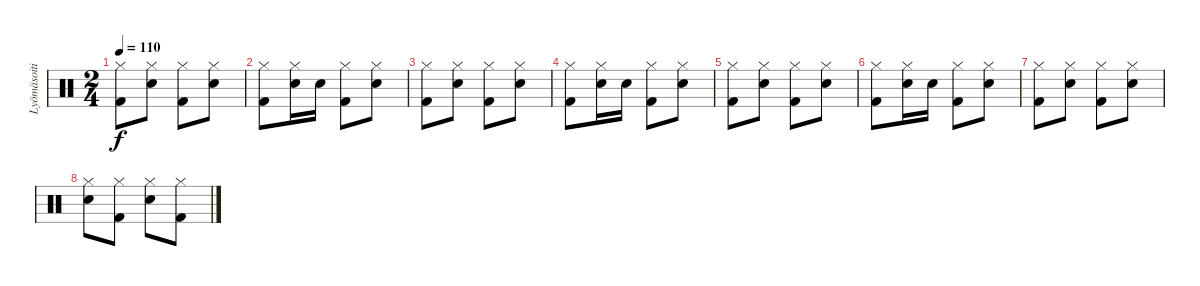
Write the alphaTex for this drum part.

\track ("Lyömäsoitin" "Lyömäsoiti") {instrument percussion}
\staff {score}
\articulation defaults
\ts (2 4)
\tempo 110
\clef neutral
\ks c
("Hi-Hat (closed)" "Kick (hit) 2").8{dy f} ("Hi-Hat (closed)" "Electric Snare (hit)").8 ("Hi-Hat (closed)" "Kick (hit) 2").8 ("Hi-Hat (closed)" "Electric Snare (hit)").8 |
("Hi-Hat (closed)" "Kick (hit) 2").8 ("Hi-Hat (closed)" "Electric Snare (hit)").16 "Electric Snare (hit)".16 ("Hi-Hat (closed)" "Kick (hit) 2").8 ("Hi-Hat (closed)" "Electric Snare (hit)").8 |
("Hi-Hat (closed)" "Kick (hit) 2").8 ("Hi-Hat (closed)" "Electric Snare (hit)").8 ("Hi-Hat (closed)" "Kick (hit) 2").8 ("Hi-Hat (closed)" "Electric Snare (hit)").8 |
("Hi-Hat (closed)" "Kick (hit) 2").8 ("Hi-Hat (closed)" "Electric Snare (hit)").16 "Electric Snare (hit)".16 ("Hi-Hat (closed)" "Kick (hit) 2").8 ("Hi-Hat (closed)" "Electric Snare (hit)").8 |
("Hi-Hat (closed)" "Kick (hit) 2").8 ("Hi-Hat (closed)" "Electric Snare (hit)").8 ("Hi-Hat (closed)" "Kick (hit) 2").8 ("Hi-Hat (closed)" "Electric Snare (hit)").8 |
("Hi-Hat (closed)" "Kick (hit) 2").8 ("Hi-Hat (closed)" "Electric Snare (hit)").16 "Electric Snare (hit)".16 ("Hi-Hat (closed)" "Kick (hit) 2").8 ("Hi-Hat (closed)" "Electric Snare (hit)").8 |
("Hi-Hat (closed)" "Kick (hit) 2").8 ("Hi-Hat (closed)" "Electric Snare (hit)").8 ("Hi-Hat (closed)" "Kick (hit) 2").8 ("Hi-Hat (closed)" "Electric Snare (hit)").8 |
("Hi-Hat (closed)" "Electric Snare (hit)").8 ("Hi-Hat (closed)" "Kick (hit) 2").8 ("Hi-Hat (closed)" "Electric Snare (hit)").8 ("Hi-Hat (closed)" "Kick (hit) 2").8
